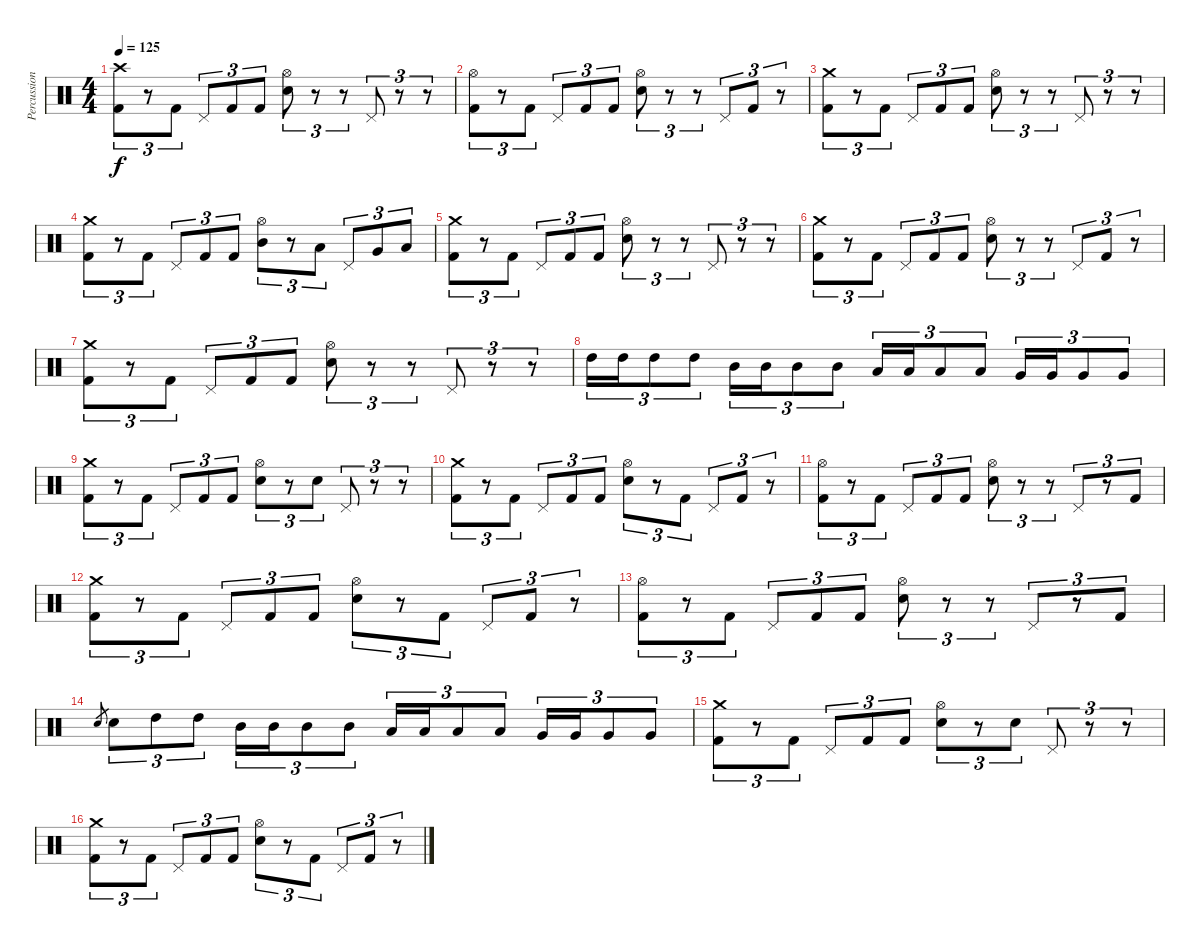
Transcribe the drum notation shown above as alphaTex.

\track ("Percussion" "Percussion") {instrument percussion}
\staff {score}
\articulation defaults
\ts (4 4)
\tempo 125
\clef neutral
\ks c
("Crash high (hit)" "Kick (hit) 2").8{tu (3 2) dy f} r.8{tu (3 2)} "Kick (hit) 2".8{tu (3 2)} "Pedal Hi-Hat (hit)".8{tu (3 2)} "Kick (hit) 2".8{tu (3 2)} "Kick (hit) 2".8{tu (3 2)} ("Hi-Hat (open)" "Electric Snare (hit)").8{tu (3 2)} r.8{tu (3 2)} r.8{tu (3 2)} "Pedal Hi-Hat (hit)".8{tu (3 2)} r.8{tu (3 2)} r.8{tu (3 2)} |
("Hi-Hat (open)" "Kick (hit) 2").8{tu (3 2)} r.8{tu (3 2)} "Kick (hit) 2".8{tu (3 2)} "Pedal Hi-Hat (hit)".8{tu (3 2)} "Kick (hit) 2".8{tu (3 2)} "Kick (hit) 2".8{tu (3 2)} ("Hi-Hat (open)" "Electric Snare (hit)").8{tu (3 2)} r.8{tu (3 2)} r.8{tu (3 2)} "Pedal Hi-Hat (hit)".8{tu (3 2)} "Kick (hit) 2".8{tu (3 2)} r.8{tu (3 2)} |
("Crash medium (hit)" "Kick (hit) 2").8{tu (3 2)} r.8{tu (3 2)} "Kick (hit) 2".8{tu (3 2)} "Pedal Hi-Hat (hit)".8{tu (3 2)} "Kick (hit) 2".8{tu (3 2)} "Kick (hit) 2".8{tu (3 2)} ("Hi-Hat (open)" "Electric Snare (hit)").8{tu (3 2)} r.8{tu (3 2)} r.8{tu (3 2)} "Pedal Hi-Hat (hit)".8{tu (3 2)} r.8{tu (3 2)} r.8{tu (3 2)} |
("Crash medium (hit)" "Kick (hit) 2").8{tu (3 2)} r.8{tu (3 2)} "Kick (hit) 2".8{tu (3 2)} "Pedal Hi-Hat (hit)".8{tu (3 2)} "Kick (hit) 2".8{tu (3 2)} "Kick (hit) 2".8{tu (3 2)} ("Hi-Hat (open)" "Mid Tom (hit)").8{tu (3 2)} r.8{tu (3 2)} "Low Tom (hit)".8{tu (3 2)} "Pedal Hi-Hat (hit)".8{tu (3 2)} "Very Low Tom (hit)".8{tu (3 2)} "Low Floor Tom (hit)".8{tu (3 2)} |
("Crash medium (hit)" "Kick (hit) 2").8{tu (3 2)} r.8{tu (3 2)} "Kick (hit) 2".8{tu (3 2)} "Pedal Hi-Hat (hit)".8{tu (3 2)} "Kick (hit) 2".8{tu (3 2)} "Kick (hit) 2".8{tu (3 2)} ("Hi-Hat (open)" "Electric Snare (hit)").8{tu (3 2)} r.8{tu (3 2)} r.8{tu (3 2)} "Pedal Hi-Hat (hit)".8{tu (3 2)} r.8{tu (3 2)} r.8{tu (3 2)} |
("Crash medium (hit)" "Kick (hit) 2").8{tu (3 2)} r.8{tu (3 2)} "Kick (hit) 2".8{tu (3 2)} "Pedal Hi-Hat (hit)".8{tu (3 2)} "Kick (hit) 2".8{tu (3 2)} "Kick (hit) 2".8{tu (3 2)} ("Hi-Hat (open)" "Electric Snare (hit)").8{tu (3 2)} r.8{tu (3 2)} r.8{tu (3 2)} "Pedal Hi-Hat (hit)".8{tu (3 2)} "Kick (hit) 2".8{tu (3 2)} r.8{tu (3 2)} |
("Crash medium (hit)" "Kick (hit) 2").8{tu (3 2)} r.8{tu (3 2)} "Kick (hit) 2".8{tu (3 2)} "Pedal Hi-Hat (hit)".8{tu (3 2)} "Kick (hit) 2".8{tu (3 2)} "Kick (hit) 2".8{tu (3 2)} ("Hi-Hat (open)" "Electric Snare (hit)").8{tu (3 2)} r.8{tu (3 2)} r.8{tu (3 2)} "Pedal Hi-Hat (hit)".8{tu (3 2)} r.8{tu (3 2)} r.8{tu (3 2)} |
"High Tom (hit)".16{tu (3 2)} "High Tom (hit)".16{tu (3 2)} "High Tom (hit)".8{tu (3 2)} "High Tom (hit)".8{tu (3 2)} "Mid Tom (hit)".16{tu (3 2)} "Mid Tom (hit)".16{tu (3 2)} "Mid Tom (hit)".8{tu (3 2)} "Mid Tom (hit)".8{tu (3 2)} "Low Tom (hit)".16{tu (3 2)} "Low Tom (hit)".16{tu (3 2)} "Low Tom (hit)".8{tu (3 2)} "Low Tom (hit)".8{tu (3 2)} "Very Low Tom (hit)".16{tu (3 2)} "Very Low Tom (hit)".16{tu (3 2)} "Very Low Tom (hit)".8{tu (3 2)} "Very Low Tom (hit)".8{tu (3 2)} |
("Crash medium (hit)" "Kick (hit) 2").8{tu (3 2)} r.8{tu (3 2)} "Kick (hit) 2".8{tu (3 2)} "Pedal Hi-Hat (hit)".8{tu (3 2)} "Kick (hit) 2".8{tu (3 2)} "Kick (hit) 2".8{tu (3 2)} ("Hi-Hat (open)" "Electric Snare (hit)").8{tu (3 2)} r.8{tu (3 2)} "Electric Snare (hit)".8{tu (3 2)} "Pedal Hi-Hat (hit)".8{tu (3 2)} r.8{tu (3 2)} r.8{tu (3 2)} |
("Crash medium (hit)" "Kick (hit) 2").8{tu (3 2)} r.8{tu (3 2)} "Kick (hit) 2".8{tu (3 2)} "Pedal Hi-Hat (hit)".8{tu (3 2)} "Kick (hit) 2".8{tu (3 2)} "Kick (hit) 2".8{tu (3 2)} ("Hi-Hat (open)" "Electric Snare (hit)").8{tu (3 2)} r.8{tu (3 2)} "Kick (hit) 2".8{tu (3 2)} "Pedal Hi-Hat (hit)".8{tu (3 2)} "Kick (hit) 2".8{tu (3 2)} r.8{tu (3 2)} |
("Hi-Hat (open)" "Kick (hit) 2").8{tu (3 2)} r.8{tu (3 2)} "Kick (hit) 2".8{tu (3 2)} "Pedal Hi-Hat (hit)".8{tu (3 2)} "Kick (hit) 2".8{tu (3 2)} "Kick (hit) 2".8{tu (3 2)} ("Hi-Hat (open)" "Electric Snare (hit)").8{tu (3 2)} r.8{tu (3 2)} r.8{tu (3 2)} "Pedal Hi-Hat (hit)".8{tu (3 2)} r.8{tu (3 2)} "Kick (hit) 2".8{tu (3 2)} |
("Crash medium (hit)" "Kick (hit) 2").8{tu (3 2)} r.8{tu (3 2)} "Kick (hit) 2".8{tu (3 2)} "Pedal Hi-Hat (hit)".8{tu (3 2)} "Kick (hit) 2".8{tu (3 2)} "Kick (hit) 2".8{tu (3 2)} ("Hi-Hat (open)" "Electric Snare (hit)").8{tu (3 2)} r.8{tu (3 2)} "Kick (hit) 2".8{tu (3 2)} "Pedal Hi-Hat (hit)".8{tu (3 2)} "Kick (hit) 2".8{tu (3 2)} r.8{tu (3 2)} |
("Hi-Hat (open)" "Kick (hit) 2").8{tu (3 2)} r.8{tu (3 2)} "Kick (hit) 2".8{tu (3 2)} "Pedal Hi-Hat (hit)".8{tu (3 2)} "Kick (hit) 2".8{tu (3 2)} "Kick (hit) 2".8{tu (3 2)} ("Hi-Hat (open)" "Electric Snare (hit)").8{tu (3 2)} r.8{tu (3 2)} r.8{tu (3 2)} "Pedal Hi-Hat (hit)".8{tu (3 2)} r.8{tu (3 2)} "Kick (hit) 2".8{tu (3 2)} |
"Electric Snare (hit)".8{gr} "Electric Snare (hit)".8{tu (3 2)} "High Tom (hit)".8{tu (3 2)} "High Tom (hit)".8{tu (3 2)} "Mid Tom (hit)".16{tu (3 2)} "Mid Tom (hit)".16{tu (3 2)} "Mid Tom (hit)".8{tu (3 2)} "Mid Tom (hit)".8{tu (3 2)} "Low Tom (hit)".16{tu (3 2)} "Low Tom (hit)".16{tu (3 2)} "Low Tom (hit)".8{tu (3 2)} "Low Tom (hit)".8{tu (3 2)} "Very Low Tom (hit)".16{tu (3 2)} "Very Low Tom (hit)".16{tu (3 2)} "Very Low Tom (hit)".8{tu (3 2)} "Very Low Tom (hit)".8{tu (3 2)} |
("Crash medium (hit)" "Kick (hit) 2").8{tu (3 2)} r.8{tu (3 2)} "Kick (hit) 2".8{tu (3 2)} "Pedal Hi-Hat (hit)".8{tu (3 2)} "Kick (hit) 2".8{tu (3 2)} "Kick (hit) 2".8{tu (3 2)} ("Hi-Hat (open)" "Electric Snare (hit)").8{tu (3 2)} r.8{tu (3 2)} "Electric Snare (hit)".8{tu (3 2)} "Pedal Hi-Hat (hit)".8{tu (3 2)} r.8{tu (3 2)} r.8{tu (3 2)} |
("Crash medium (hit)" "Kick (hit) 2").8{tu (3 2)} r.8{tu (3 2)} "Kick (hit) 2".8{tu (3 2)} "Pedal Hi-Hat (hit)".8{tu (3 2)} "Kick (hit) 2".8{tu (3 2)} "Kick (hit) 2".8{tu (3 2)} ("Hi-Hat (open)" "Electric Snare (hit)").8{tu (3 2)} r.8{tu (3 2)} "Kick (hit) 2".8{tu (3 2)} "Pedal Hi-Hat (hit)".8{tu (3 2)} "Kick (hit) 2".8{tu (3 2)} r.8{tu (3 2)}
